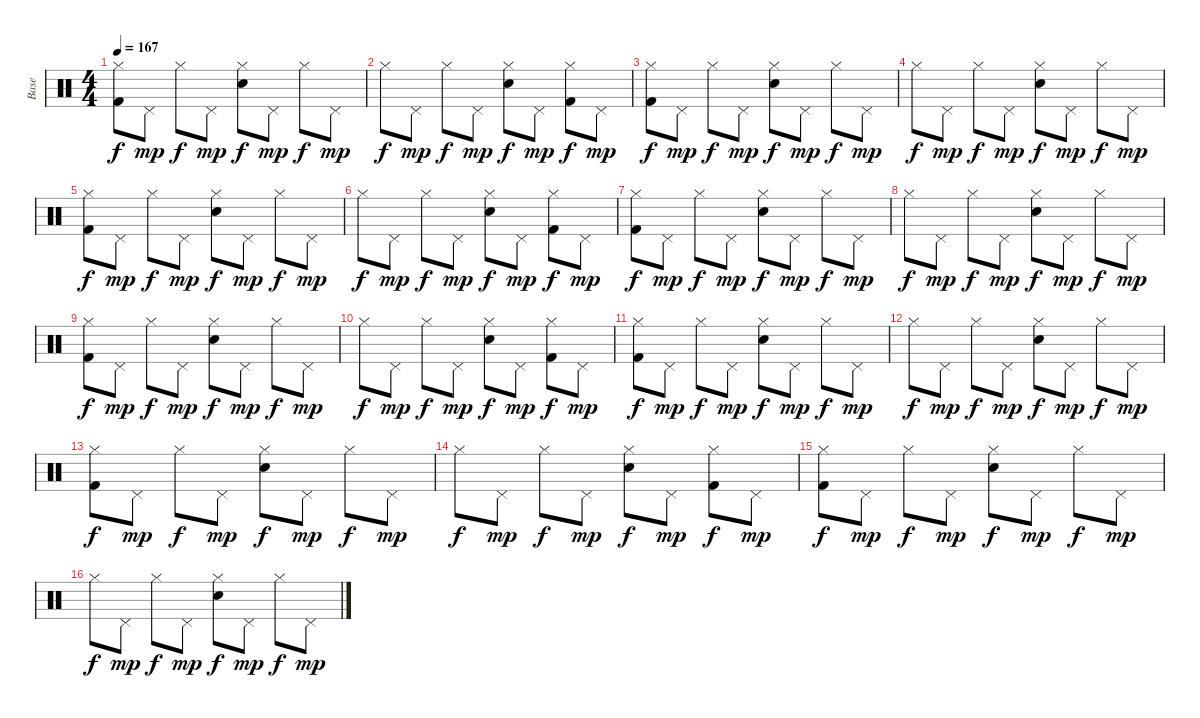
\track ("Base" "Base") {instrument percussion}
\staff {score}
\articulation defaults
\ts (4 4)
\tempo 167
\clef neutral
\ks c
("Hi-Hat (closed)" "Kick (hit) 2").8{dy f} "Pedal Hi-Hat (hit)".8{dy mp} "Hi-Hat (closed)".8{dy f} "Pedal Hi-Hat (hit)".8{dy mp} ("Electric Snare (hit)" "Hi-Hat (closed)").8{dy f} "Pedal Hi-Hat (hit)".8{dy mp} "Hi-Hat (closed)".8{dy f} "Pedal Hi-Hat (hit)".8{dy mp} |
"Hi-Hat (closed)".8{dy f} "Pedal Hi-Hat (hit)".8{dy mp} "Hi-Hat (closed)".8{dy f} "Pedal Hi-Hat (hit)".8{dy mp} ("Electric Snare (hit)" "Hi-Hat (closed)").8{dy f} "Pedal Hi-Hat (hit)".8{dy mp} ("Hi-Hat (closed)" "Kick (hit) 2").8{dy f} "Pedal Hi-Hat (hit)".8{dy mp} |
("Hi-Hat (closed)" "Kick (hit) 2").8{dy f} "Pedal Hi-Hat (hit)".8{dy mp} "Hi-Hat (closed)".8{dy f} "Pedal Hi-Hat (hit)".8{dy mp} ("Electric Snare (hit)" "Hi-Hat (closed)").8{dy f} "Pedal Hi-Hat (hit)".8{dy mp} "Hi-Hat (closed)".8{dy f} "Pedal Hi-Hat (hit)".8{dy mp} |
"Hi-Hat (closed)".8{dy f} "Pedal Hi-Hat (hit)".8{dy mp} "Hi-Hat (closed)".8{dy f} "Pedal Hi-Hat (hit)".8{dy mp} ("Electric Snare (hit)" "Hi-Hat (closed)").8{dy f} "Pedal Hi-Hat (hit)".8{dy mp} "Hi-Hat (closed)".8{dy f} "Pedal Hi-Hat (hit)".8{dy mp} |
("Hi-Hat (closed)" "Kick (hit) 2").8{dy f} "Pedal Hi-Hat (hit)".8{dy mp} "Hi-Hat (closed)".8{dy f} "Pedal Hi-Hat (hit)".8{dy mp} ("Electric Snare (hit)" "Hi-Hat (closed)").8{dy f} "Pedal Hi-Hat (hit)".8{dy mp} "Hi-Hat (closed)".8{dy f} "Pedal Hi-Hat (hit)".8{dy mp} |
"Hi-Hat (closed)".8{dy f} "Pedal Hi-Hat (hit)".8{dy mp} "Hi-Hat (closed)".8{dy f} "Pedal Hi-Hat (hit)".8{dy mp} ("Electric Snare (hit)" "Hi-Hat (closed)").8{dy f} "Pedal Hi-Hat (hit)".8{dy mp} ("Hi-Hat (closed)" "Kick (hit) 2").8{dy f} "Pedal Hi-Hat (hit)".8{dy mp} |
("Hi-Hat (closed)" "Kick (hit) 2").8{dy f} "Pedal Hi-Hat (hit)".8{dy mp} "Hi-Hat (closed)".8{dy f} "Pedal Hi-Hat (hit)".8{dy mp} ("Electric Snare (hit)" "Hi-Hat (closed)").8{dy f} "Pedal Hi-Hat (hit)".8{dy mp} "Hi-Hat (closed)".8{dy f} "Pedal Hi-Hat (hit)".8{dy mp} |
"Hi-Hat (closed)".8{dy f} "Pedal Hi-Hat (hit)".8{dy mp} "Hi-Hat (closed)".8{dy f} "Pedal Hi-Hat (hit)".8{dy mp} ("Electric Snare (hit)" "Hi-Hat (closed)").8{dy f} "Pedal Hi-Hat (hit)".8{dy mp} "Hi-Hat (closed)".8{dy f} "Pedal Hi-Hat (hit)".8{dy mp} |
("Hi-Hat (closed)" "Kick (hit) 2").8{dy f} "Pedal Hi-Hat (hit)".8{dy mp} "Hi-Hat (closed)".8{dy f} "Pedal Hi-Hat (hit)".8{dy mp} ("Electric Snare (hit)" "Hi-Hat (closed)").8{dy f} "Pedal Hi-Hat (hit)".8{dy mp} "Hi-Hat (closed)".8{dy f} "Pedal Hi-Hat (hit)".8{dy mp} |
"Hi-Hat (closed)".8{dy f} "Pedal Hi-Hat (hit)".8{dy mp} "Hi-Hat (closed)".8{dy f} "Pedal Hi-Hat (hit)".8{dy mp} ("Electric Snare (hit)" "Hi-Hat (closed)").8{dy f} "Pedal Hi-Hat (hit)".8{dy mp} ("Hi-Hat (closed)" "Kick (hit) 2").8{dy f} "Pedal Hi-Hat (hit)".8{dy mp} |
("Hi-Hat (closed)" "Kick (hit) 2").8{dy f} "Pedal Hi-Hat (hit)".8{dy mp} "Hi-Hat (closed)".8{dy f} "Pedal Hi-Hat (hit)".8{dy mp} ("Electric Snare (hit)" "Hi-Hat (closed)").8{dy f} "Pedal Hi-Hat (hit)".8{dy mp} "Hi-Hat (closed)".8{dy f} "Pedal Hi-Hat (hit)".8{dy mp} |
"Hi-Hat (closed)".8{dy f} "Pedal Hi-Hat (hit)".8{dy mp} "Hi-Hat (closed)".8{dy f} "Pedal Hi-Hat (hit)".8{dy mp} ("Electric Snare (hit)" "Hi-Hat (closed)").8{dy f} "Pedal Hi-Hat (hit)".8{dy mp} "Hi-Hat (closed)".8{dy f} "Pedal Hi-Hat (hit)".8{dy mp} |
("Hi-Hat (closed)" "Kick (hit) 2").8{dy f} "Pedal Hi-Hat (hit)".8{dy mp} "Hi-Hat (closed)".8{dy f} "Pedal Hi-Hat (hit)".8{dy mp} ("Electric Snare (hit)" "Hi-Hat (closed)").8{dy f} "Pedal Hi-Hat (hit)".8{dy mp} "Hi-Hat (closed)".8{dy f} "Pedal Hi-Hat (hit)".8{dy mp} |
"Hi-Hat (closed)".8{dy f} "Pedal Hi-Hat (hit)".8{dy mp} "Hi-Hat (closed)".8{dy f} "Pedal Hi-Hat (hit)".8{dy mp} ("Electric Snare (hit)" "Hi-Hat (closed)").8{dy f} "Pedal Hi-Hat (hit)".8{dy mp} ("Hi-Hat (closed)" "Kick (hit) 2").8{dy f} "Pedal Hi-Hat (hit)".8{dy mp} |
("Hi-Hat (closed)" "Kick (hit) 2").8{dy f} "Pedal Hi-Hat (hit)".8{dy mp} "Hi-Hat (closed)".8{dy f} "Pedal Hi-Hat (hit)".8{dy mp} ("Electric Snare (hit)" "Hi-Hat (closed)").8{dy f} "Pedal Hi-Hat (hit)".8{dy mp} "Hi-Hat (closed)".8{dy f} "Pedal Hi-Hat (hit)".8{dy mp} |
"Hi-Hat (closed)".8{dy f} "Pedal Hi-Hat (hit)".8{dy mp} "Hi-Hat (closed)".8{dy f} "Pedal Hi-Hat (hit)".8{dy mp} ("Electric Snare (hit)" "Hi-Hat (closed)").8{dy f} "Pedal Hi-Hat (hit)".8{dy mp} "Hi-Hat (closed)".8{dy f} "Pedal Hi-Hat (hit)".8{dy mp}
